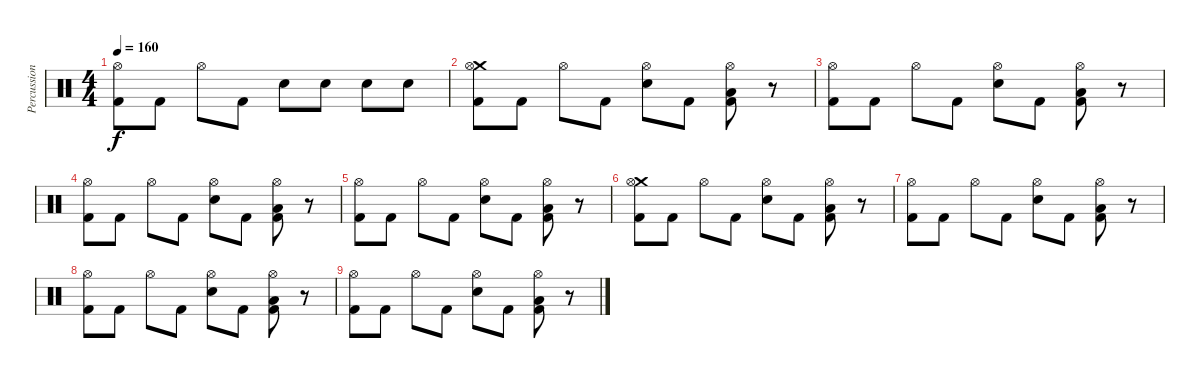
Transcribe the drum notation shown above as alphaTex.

\track ("Percussioni" "Percussion") {instrument percussion}
\staff {score}
\articulation defaults
\ts (4 4)
\tempo 160
\clef neutral
\ks c
("Hi-Hat (open)" "Kick (hit) 2").8{dy f} "Kick (hit) 2".8 "Hi-Hat (open)".8 "Kick (hit) 2".8 "Snare (hit) 2".8 "Snare (hit) 2".8 "Snare (hit) 2".8 "Snare (hit) 2".8 |
("Crash medium (hit)" "Hi-Hat (open)" "Kick (hit) 2").8 "Kick (hit) 2".8 "Hi-Hat (open)".8 "Kick (hit) 2".8 ("Hi-Hat (open)" "Snare (hit) 2").8 "Kick (hit) 2".8 ("Hi-Hat (open)" "Low Floor Tom (hit)" "Kick (hit) 2").8 r.8 |
("Hi-Hat (open)" "Kick (hit) 2").8 "Kick (hit) 2".8 "Hi-Hat (open)".8 "Kick (hit) 2".8 ("Hi-Hat (open)" "Snare (hit) 2").8 "Kick (hit) 2".8 ("Hi-Hat (open)" "Low Floor Tom (hit)" "Kick (hit) 2").8 r.8 |
("Hi-Hat (open)" "Kick (hit) 2").8 "Kick (hit) 2".8 "Hi-Hat (open)".8 "Kick (hit) 2".8 ("Hi-Hat (open)" "Snare (hit) 2").8 "Kick (hit) 2".8 ("Hi-Hat (open)" "Low Floor Tom (hit)" "Kick (hit) 2").8 r.8 |
("Hi-Hat (open)" "Kick (hit) 2").8 "Kick (hit) 2".8 "Hi-Hat (open)".8 "Kick (hit) 2".8 ("Hi-Hat (open)" "Snare (hit) 2").8 "Kick (hit) 2".8 ("Hi-Hat (open)" "Low Floor Tom (hit)" "Kick (hit) 2").8 r.8 |
("Crash medium (hit)" "Hi-Hat (open)" "Kick (hit) 2").8 "Kick (hit) 2".8 "Hi-Hat (open)".8 "Kick (hit) 2".8 ("Hi-Hat (open)" "Snare (hit) 2").8 "Kick (hit) 2".8 ("Hi-Hat (open)" "Low Floor Tom (hit)" "Kick (hit) 2").8 r.8 |
("Hi-Hat (open)" "Kick (hit) 2").8 "Kick (hit) 2".8 "Hi-Hat (open)".8 "Kick (hit) 2".8 ("Hi-Hat (open)" "Snare (hit) 2").8 "Kick (hit) 2".8 ("Hi-Hat (open)" "Low Floor Tom (hit)" "Kick (hit) 2").8 r.8 |
("Hi-Hat (open)" "Kick (hit) 2").8 "Kick (hit) 2".8 "Hi-Hat (open)".8 "Kick (hit) 2".8 ("Hi-Hat (open)" "Snare (hit) 2").8 "Kick (hit) 2".8 ("Hi-Hat (open)" "Low Floor Tom (hit)" "Kick (hit) 2").8 r.8 |
("Hi-Hat (open)" "Kick (hit) 2").8 "Kick (hit) 2".8 "Hi-Hat (open)".8 "Kick (hit) 2".8 ("Hi-Hat (open)" "Snare (hit) 2").8 "Kick (hit) 2".8 ("Hi-Hat (open)" "Low Floor Tom (hit)" "Kick (hit) 2").8 r.8
